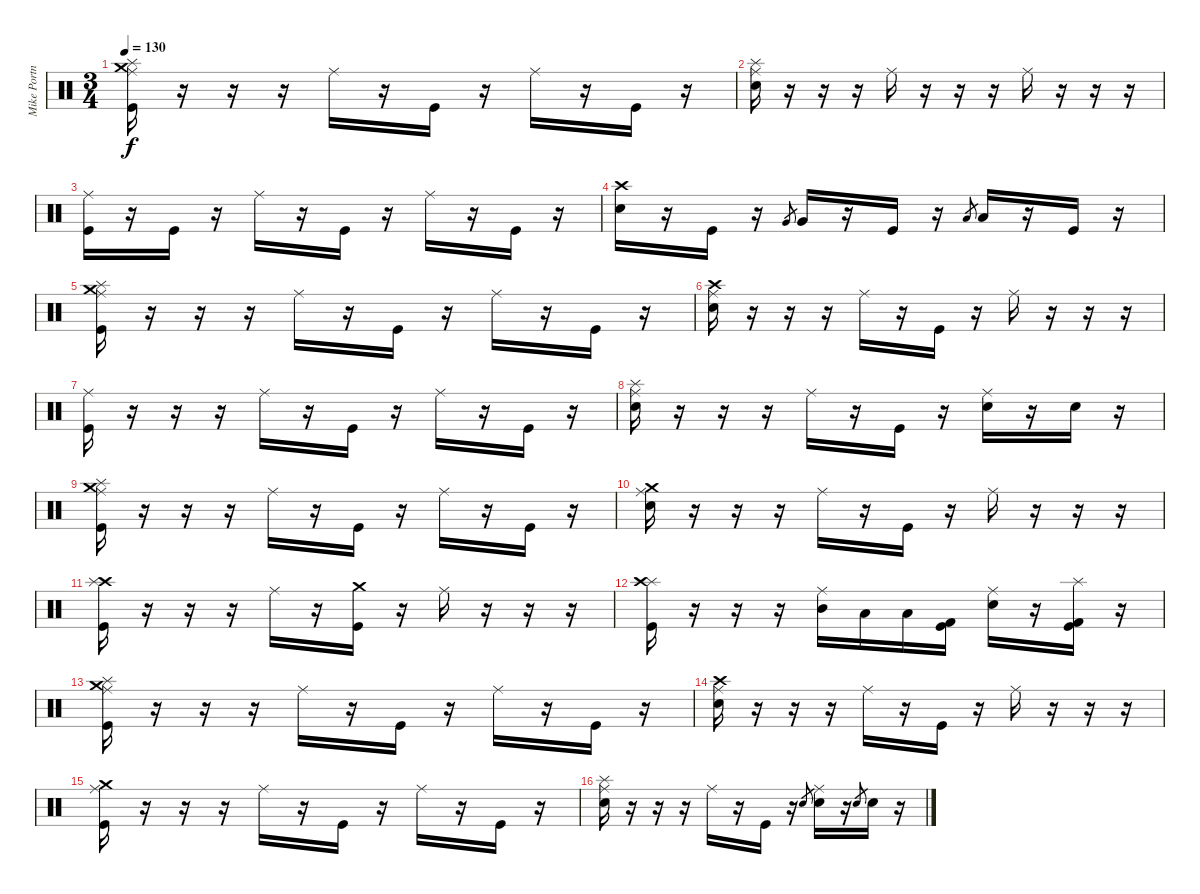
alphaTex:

\track ("Mike Portnoy" "Mike Portn") {instrument percussion}
\staff {score}
\articulation defaults
\ts (3 4)
\tempo 130
\clef neutral
\ks c
("Kick (hit)" "Crash medium (hit)" "Splash (hit)" "Ride (middle)").16{dy f} r.16 r.16 r.16 "Ride (middle)".16 r.16 "Kick (hit)".16 r.16 "Ride (middle)".16 r.16 "Kick (hit)".16 r.16 |
("Electric Snare (hit)" "Splash (hit)" "Ride (middle)").16 r.16 r.16 r.16 "Ride (middle)".16 r.16 r.16 r.16 "Ride (middle)".16 r.16 r.16 r.16 |
("Kick (hit)" "Ride (middle)").16 r.16 "Kick (hit)".16 r.16 "Ride (middle)".16 r.16 "Kick (hit)".16 r.16 "Ride (middle)".16 r.16 "Kick (hit)".16 r.16 |
("Electric Snare (hit)" "Crash high (hit)").16 r.16 "Kick (hit)".16 r.16 "Very Low Tom (hit)".8{gr} "Very Low Tom (hit)".16 r.16 "Kick (hit)".16 r.16 "Low Floor Tom (hit)".8{gr} "Low Floor Tom (hit)".16 r.16 "Kick (hit)".16 r.16 |
("Kick (hit)" "Crash medium (hit)" "Splash (hit)" "Ride (middle)").16 r.16 r.16 r.16 "Ride (middle)".16 r.16 "Kick (hit)".16 r.16 "Ride (middle)".16 r.16 "Kick (hit)".16 r.16 |
("Electric Snare (hit)" "Crash high (hit)" "Ride (middle)").16 r.16 r.16 r.16 "Ride (middle)".16 r.16 "Kick (hit)".16 r.16 "Ride (middle)".16 r.16 r.16 r.16 |
("Kick (hit)" "Ride (middle)").16 r.16 r.16 r.16 "Ride (middle)".16 r.16 "Kick (hit)".16 r.16 "Ride (middle)".16 r.16 "Kick (hit)".16 r.16 |
("Electric Snare (hit)" "Splash (hit)" "Ride (middle)").16 r.16 r.16 r.16 "Ride (middle)".16 r.16 "Kick (hit)".16 r.16 ("Electric Snare (hit)" "Ride (middle)").16 r.16 "Electric Snare (hit)".16 r.16 |
("Kick (hit)" "Crash medium (hit)" "Splash (hit)" "Ride (middle)").16 r.16 r.16 r.16 "Ride (middle)".16 r.16 "Kick (hit)".16 r.16 "Ride (middle)".16 r.16 "Kick (hit)".16 r.16 |
("Electric Snare (hit)" "Crash medium (hit)" "Ride (middle)").16 r.16 r.16 r.16 "Ride (middle)".16 r.16 "Kick (hit)".16 r.16 "Ride (middle)".16 r.16 r.16 r.16 |
("Kick (hit)" "Crash high (hit)" "Splash (hit)").16 r.16 r.16 r.16 "Ride (middle)".16 r.16 ("Crash medium (hit)" "Kick (hit)").16 r.16 "Ride (middle)".16 r.16 r.16 r.16 |
("Splash (hit)" "Crash high (hit)" "Kick (hit)").16 r.16 r.16 r.16 ("Mid Tom (hit)" "Ride (middle)").16 "Low Tom (hit)".16 "Low Floor Tom (hit)".16 ("Kick (hit) 2" "Kick (hit)").16 ("Electric Snare (hit)" "Ride (middle)").16 r.16 ("Kick (hit)" "Kick (hit) 2" "Splash (hit)").16 r.16 |
("Kick (hit)" "Crash medium (hit)" "Splash (hit)" "Ride (middle)").16 r.16 r.16 r.16 "Ride (middle)".16 r.16 "Kick (hit)".16 r.16 "Ride (middle)".16 r.16 "Kick (hit)".16 r.16 |
("Electric Snare (hit)" "Crash high (hit)" "Ride (middle)").16 r.16 r.16 r.16 "Ride (middle)".16 r.16 "Kick (hit)".16 r.16 "Ride (middle)".16 r.16 r.16 r.16 |
("Kick (hit)" "Crash medium (hit)" "Ride (middle)").16 r.16 r.16 r.16 "Ride (middle)".16 r.16 "Kick (hit)".16 r.16 "Ride (middle)".16 r.16 "Kick (hit)".16 r.16 |
("Electric Snare (hit)" "Splash (hit)" "Ride (middle)").16 r.16 r.16 r.16 "Ride (middle)".16 r.16 "Kick (hit)".16 r.16 "Electric Snare (hit)".8{gr} ("Electric Snare (hit)" "Ride (middle)").16 r.16 "Electric Snare (hit)".8{gr} "Electric Snare (hit)".16 r.16
